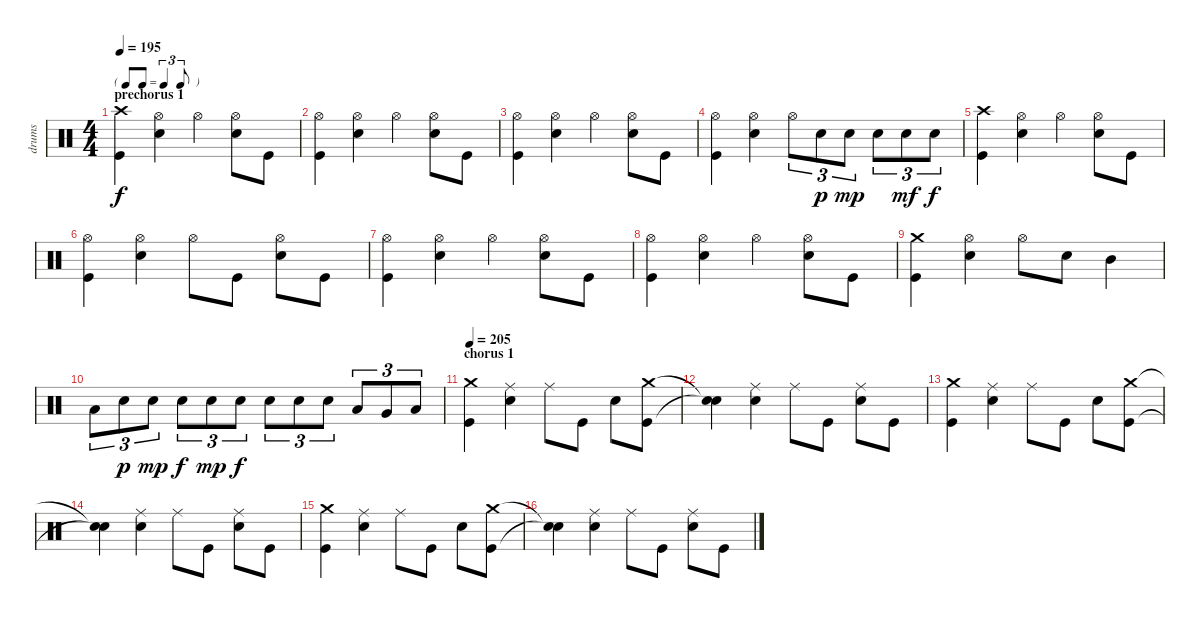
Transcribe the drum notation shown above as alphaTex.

\track ("drums" "drums") {instrument percussion}
\staff {score}
\articulation defaults
\ts (4 4)
\tf triplet8th
\section ("" "prechorus 1")
\tempo 195
\clef neutral
\ks c
("Crash high (hit)" "Kick (hit)").4{dy f} ("Hi-Hat (open)" "Snare (hit) 2").4 "Hi-Hat (open)".4 ("Hi-Hat (open)" "Snare (hit) 2").8 "Kick (hit)".8 |
("Hi-Hat (open)" "Kick (hit)").4 ("Hi-Hat (open)" "Snare (hit) 2").4 "Hi-Hat (open)".4 ("Hi-Hat (open)" "Snare (hit) 2").8 "Kick (hit)".8 |
("Hi-Hat (open)" "Kick (hit)").4 ("Hi-Hat (open)" "Snare (hit) 2").4 "Hi-Hat (open)".4 ("Hi-Hat (open)" "Snare (hit) 2").8 "Kick (hit)".8 |
("Hi-Hat (open)" "Kick (hit)").4 ("Hi-Hat (open)" "Snare (hit) 2").4 "Hi-Hat (open)".8{tu (3 2)} "Snare (hit) 2".8{tu (3 2) dy p} "Snare (hit) 2".8{tu (3 2) dy mp} "Snare (hit) 2".8{tu (3 2)} "Snare (hit) 2".8{tu (3 2) dy mf} "Snare (hit) 2".8{tu (3 2) dy f} |
("Crash high (hit)" "Kick (hit)").4 ("Hi-Hat (open)" "Snare (hit) 2").4 "Hi-Hat (open)".4 ("Hi-Hat (open)" "Snare (hit) 2").8 "Kick (hit)".8 |
("Hi-Hat (open)" "Kick (hit)").4 ("Hi-Hat (open)" "Snare (hit) 2").4 "Hi-Hat (open)".8 "Kick (hit)".8 ("Hi-Hat (open)" "Snare (hit) 2").8 "Kick (hit)".8 |
("Hi-Hat (open)" "Kick (hit)").4 ("Hi-Hat (open)" "Snare (hit) 2").4 "Hi-Hat (open)".4 ("Hi-Hat (open)" "Snare (hit) 2").8 "Kick (hit)".8 |
("Hi-Hat (open)" "Kick (hit)").4 ("Hi-Hat (open)" "Snare (hit) 2").4 "Hi-Hat (open)".4 ("Hi-Hat (open)" "Snare (hit) 2").8 "Kick (hit)".8 |
("Crash medium (hit)" "Kick (hit)").4 ("Hi-Hat (open)" "Snare (hit) 2").4 "Hi-Hat (open)".8 "Snare (hit) 2".8 "Mid Tom (hit)".4 |
"Low Tom (hit)".8{tu (3 2)} "Snare (hit) 2".8{tu (3 2) dy p} "Snare (hit) 2".8{tu (3 2) dy mp} "Snare (hit) 2".8{tu (3 2) dy f} "Snare (hit) 2".8{tu (3 2) dy mp} "Snare (hit) 2".8{tu (3 2) dy f} "Snare (hit) 2".8{tu (3 2)} "Snare (hit) 2".8{tu (3 2)} "Snare (hit) 2".8{tu (3 2)} "Low Tom (hit)".8{tu (3 2)} "Very Low Tom (hit)".8{tu (3 2)} "Low Floor Tom (hit)".8{tu (3 2)} |
\section ("" "chorus 1")
\tempo 205
("Crash medium (hit)" "Kick (hit)").4 ("Ride (middle)" "Snare (hit) 2").4 "Ride (middle)".8 "Kick (hit)".8 "Snare (hit) 2".8 ("Crash medium (hit)" "Kick (hit)").8 |
("Snare (hit)"{t} "Snare (hit)"{t}).4 ("Ride (middle)" "Snare (hit) 2").4 "Ride (middle)".8 "Kick (hit)".8 ("Ride (middle)" "Snare (hit) 2").8 "Kick (hit)".8 |
("Crash medium (hit)" "Kick (hit)").4 ("Ride (middle)" "Snare (hit) 2").4 "Ride (middle)".8 "Kick (hit)".8 "Snare (hit) 2".8 ("Crash medium (hit)" "Kick (hit)").8 |
("Snare (hit)"{t} "Snare (hit)"{t}).4 ("Ride (middle)" "Snare (hit) 2").4 "Ride (middle)".8 "Kick (hit)".8 ("Ride (middle)" "Snare (hit) 2").8 "Kick (hit)".8 |
("Crash medium (hit)" "Kick (hit)").4 ("Ride (middle)" "Snare (hit) 2").4 "Ride (middle)".8 "Kick (hit)".8 "Snare (hit) 2".8 ("Crash medium (hit)" "Kick (hit)").8 |
("Snare (hit)"{t} "Snare (hit)"{t}).4 ("Ride (middle)" "Snare (hit) 2").4 "Ride (middle)".8 "Kick (hit)".8 ("Ride (middle)" "Snare (hit) 2").8 "Kick (hit)".8
